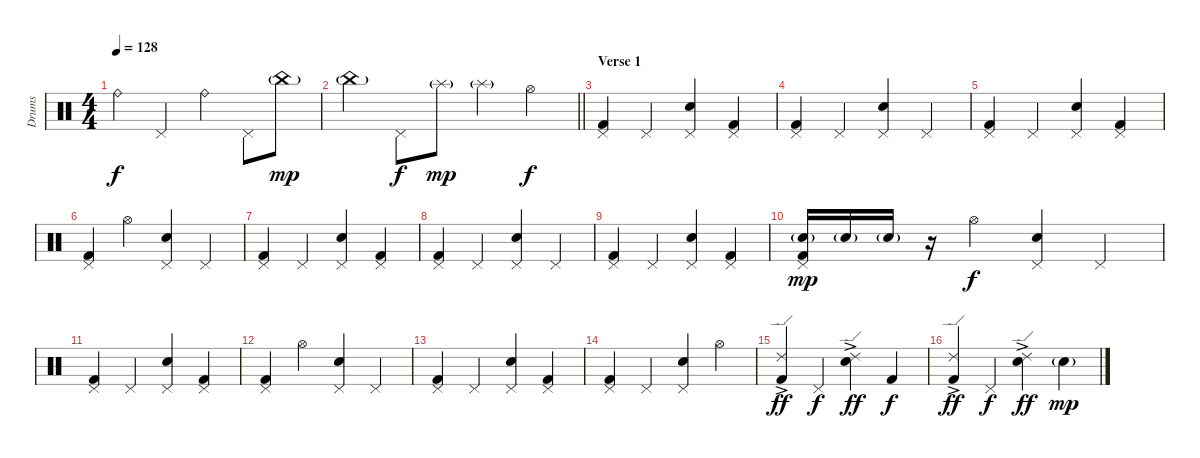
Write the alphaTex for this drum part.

\track ("Drums" "Drums") {instrument percussion}
\staff {score}
\articulation defaults
\ts (4 4)
\tempo 128
\clef neutral
\ks c "Ride (bell)".4{dy f} "Pedal Hi-Hat (hit)".4 "Ride (bell)".4 "Pedal Hi-Hat (hit)".8 "China (hit)"{g}.8{dy mp}
|
\barLineRight lightlight "China (hit)"{g}.4 "Pedal Hi-Hat (hit)".8{dy f} "Splash (hit)"{g}.8{dy mp} "Splash (hit)"{g}.4 "Hi-Hat (open)".4{dy f}
|
\section ("" "Verse 1")
("Pedal Hi-Hat (hit)" "Kick (hit) 2").4 "Pedal Hi-Hat (hit)".4 ("Pedal Hi-Hat (hit)" "Snare (hit) 2").4 ("Pedal Hi-Hat (hit)" "Kick (hit) 2").4 |
("Pedal Hi-Hat (hit)" "Kick (hit) 2").4 "Pedal Hi-Hat (hit)".4 ("Pedal Hi-Hat (hit)" "Snare (hit) 2").4 "Pedal Hi-Hat (hit)".4 |
("Pedal Hi-Hat (hit)" "Kick (hit) 2").4 "Pedal Hi-Hat (hit)".4 ("Pedal Hi-Hat (hit)" "Snare (hit) 2").4 ("Pedal Hi-Hat (hit)" "Kick (hit) 2").4 |
("Pedal Hi-Hat (hit)" "Kick (hit) 2").4 "Hi-Hat (open)".4 ("Pedal Hi-Hat (hit)" "Snare (hit) 2").4 "Pedal Hi-Hat (hit)".4 |
("Pedal Hi-Hat (hit)" "Kick (hit) 2").4 "Pedal Hi-Hat (hit)".4 ("Pedal Hi-Hat (hit)" "Snare (hit) 2").4 ("Pedal Hi-Hat (hit)" "Kick (hit) 2").4 |
("Pedal Hi-Hat (hit)" "Kick (hit) 2").4 "Pedal Hi-Hat (hit)".4 ("Pedal Hi-Hat (hit)" "Snare (hit) 2").4 "Pedal Hi-Hat (hit)".4 |
("Pedal Hi-Hat (hit)" "Kick (hit) 2").4 "Pedal Hi-Hat (hit)".4 ("Pedal Hi-Hat (hit)" "Snare (hit) 2").4 ("Pedal Hi-Hat (hit)" "Kick (hit) 2").4 |
("Pedal Hi-Hat (hit)" "Kick (hit) 2" "Snare (hit) 2"{g}).16{dy mp} "Snare (hit) 2"{g}.16 "Snare (hit) 2"{g}.16 r.16 "Hi-Hat (open)".4{dy f} ("Pedal Hi-Hat (hit)" "Snare (hit) 2").4 "Pedal Hi-Hat (hit)".4 |
("Pedal Hi-Hat (hit)" "Kick (hit) 2").4 "Pedal Hi-Hat (hit)".4 ("Pedal Hi-Hat (hit)" "Snare (hit) 2").4 ("Pedal Hi-Hat (hit)" "Kick (hit) 2").4 |
("Pedal Hi-Hat (hit)" "Kick (hit) 2").4 "Hi-Hat (open)".4 ("Pedal Hi-Hat (hit)" "Snare (hit) 2").4 "Pedal Hi-Hat (hit)".4 |
("Pedal Hi-Hat (hit)" "Kick (hit) 2").4 "Pedal Hi-Hat (hit)".4 ("Pedal Hi-Hat (hit)" "Snare (hit) 2").4 ("Pedal Hi-Hat (hit)" "Kick (hit) 2").4 |
("Pedal Hi-Hat (hit)" "Kick (hit) 2").4 "Pedal Hi-Hat (hit)".4 ("Pedal Hi-Hat (hit)" "Snare (hit) 2").4 "Hi-Hat (open)".4 |
("Kick (hit) 2"{ac} "Ride (edge) 2").4{dy ff} "Pedal Hi-Hat (hit)".4{dy f} ("Snare (hit) 2"{ac} "Ride (edge) 2").4{dy ff} "Kick (hit) 2".4{dy f} |
("Kick (hit) 2" "Ride (edge) 2"{ac}).4{dy ff} "Pedal Hi-Hat (hit)".4{dy f} ("Snare (hit) 2"{ac} "Ride (edge) 2").4{dy ff} "Snare (hit) 2"{g}.4{dy mp}
